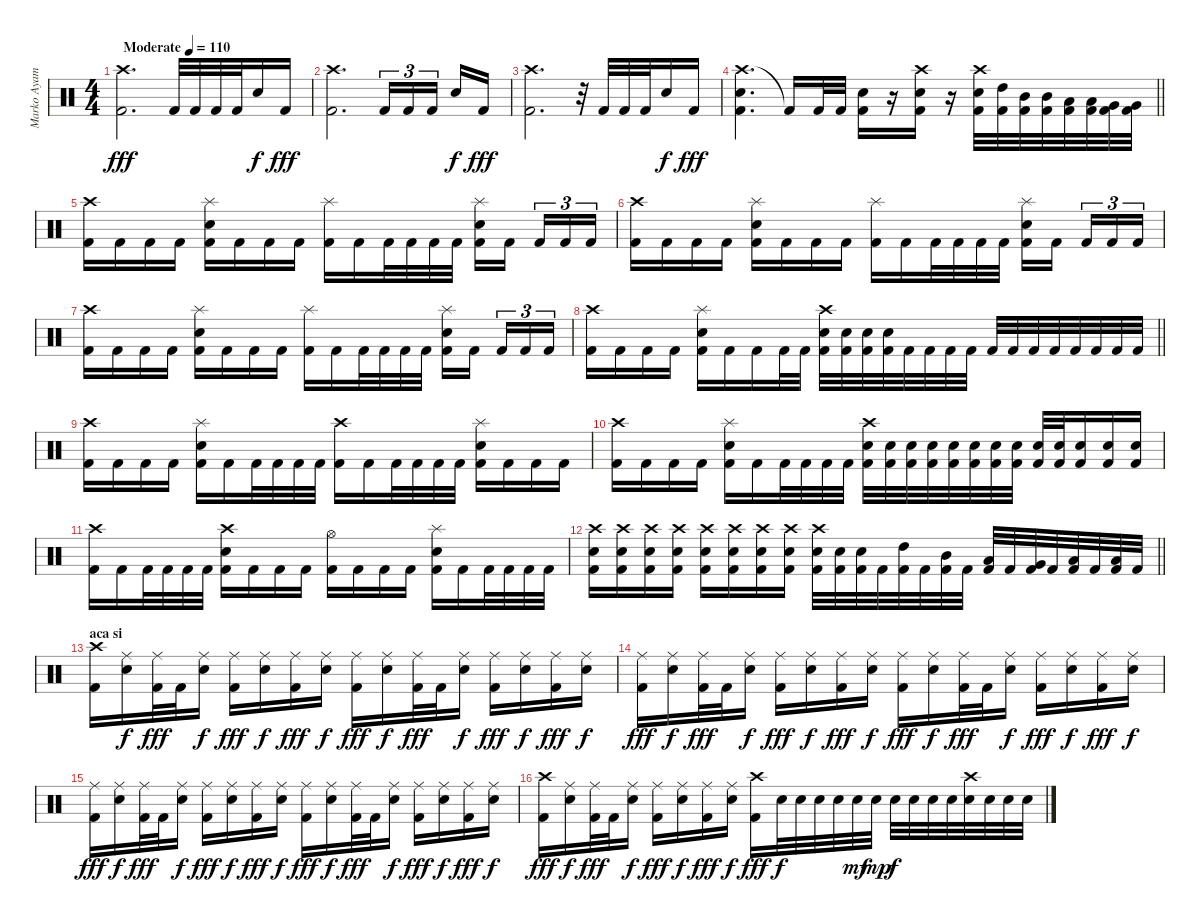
\track ("Marko Ayamani" "Marko Ayam") {instrument percussion}
\staff {score}
\articulation defaults
\ts (4 4)
\tempo (110 "Moderate")
\clef neutral
\ks c
("Crash high (hit)" "Kick (hit) 2").2{d dy fff} "Kick (hit) 2".32 "Kick (hit) 2".32 "Kick (hit) 2".32 "Kick (hit) 2".32 "Snare (hit) 2".16{dy f} "Kick (hit) 2".16{dy fff} |
("Crash high (hit)" "Kick (hit) 2").2{d} "Kick (hit) 2".16{tu (3 2)} "Kick (hit) 2".16{tu (3 2)} "Kick (hit) 2".16{tu (3 2) beam splitsecondary} "Snare (hit) 2".16{dy f} "Kick (hit) 2".16{dy fff} |
("Crash high (hit)" "Kick (hit) 2").2{d} r.32 "Kick (hit) 2".32 "Kick (hit) 2".32 "Kick (hit) 2".32 "Snare (hit) 2".16{dy f} "Kick (hit) 2".16{dy fff} |
\barLineRight lightlight
("Crash high (hit)" "Snare (hit) 2" "Kick (hit) 2").4{d} "Kick (hit) 2"{t}.16 "Kick (hit) 2".32 "Kick (hit) 2".32 ("Snare (hit) 2" "Kick (hit) 2").16 r.16 ("Crash high (hit)" "Snare (hit) 2" "Kick (hit) 2").16 r.16 ("Crash high (hit)" "Snare (hit) 2" "Kick (hit) 2").32 ("High Tom (hit)" "Kick (hit) 2").32 ("Mid Tom (hit)" "Kick (hit) 2").32 ("Mid Tom (hit)" "Kick (hit) 2").32 ("Low Tom (hit)" "Kick (hit) 2").32 ("Low Tom (hit)" "Kick (hit) 2").32 ("Very Low Tom (hit)" "Kick (hit) 2").32 ("Very Low Tom (hit)" "Kick (hit) 2").32 |
("Crash high (hit)" "Kick (hit) 2").16 "Kick (hit) 2".16 "Kick (hit) 2".16 "Kick (hit) 2".16 ("Splash (hit)" "Snare (hit) 2" "Kick (hit) 2").16 "Kick (hit) 2".16 "Kick (hit) 2".16 "Kick (hit) 2".16 ("Splash (hit)" "Kick (hit) 2").16 "Kick (hit) 2".16 "Kick (hit) 2".32 "Kick (hit) 2".32 "Kick (hit) 2".32 "Kick (hit) 2".32 ("Splash (hit)" "Snare (hit) 2" "Kick (hit) 2").16 "Kick (hit) 2".16{beam splitsecondary} "Kick (hit) 2".16{tu (3 2)} "Kick (hit) 2".16{tu (3 2)} "Kick (hit) 2".16{tu (3 2)} |
("Crash high (hit)" "Kick (hit) 2").16 "Kick (hit) 2".16 "Kick (hit) 2".16 "Kick (hit) 2".16 ("Splash (hit)" "Snare (hit) 2" "Kick (hit) 2").16 "Kick (hit) 2".16 "Kick (hit) 2".16 "Kick (hit) 2".16 ("Splash (hit)" "Kick (hit) 2").16 "Kick (hit) 2".16 "Kick (hit) 2".32 "Kick (hit) 2".32 "Kick (hit) 2".32 "Kick (hit) 2".32 ("Splash (hit)" "Snare (hit) 2" "Kick (hit) 2").16 "Kick (hit) 2".16{beam splitsecondary} "Kick (hit) 2".16{tu (3 2)} "Kick (hit) 2".16{tu (3 2)} "Kick (hit) 2".16{tu (3 2)} |
("Crash high (hit)" "Kick (hit) 2").16 "Kick (hit) 2".16 "Kick (hit) 2".16 "Kick (hit) 2".16 ("Splash (hit)" "Snare (hit) 2" "Kick (hit) 2").16 "Kick (hit) 2".16 "Kick (hit) 2".16 "Kick (hit) 2".16 ("Splash (hit)" "Kick (hit) 2").16 "Kick (hit) 2".16 "Kick (hit) 2".32 "Kick (hit) 2".32 "Kick (hit) 2".32 "Kick (hit) 2".32 ("Splash (hit)" "Snare (hit) 2" "Kick (hit) 2").16 "Kick (hit) 2".16{beam splitsecondary} "Kick (hit) 2".16{tu (3 2)} "Kick (hit) 2".16{tu (3 2)} "Kick (hit) 2".16{tu (3 2)} |
\barLineRight lightlight
("Crash high (hit)" "Kick (hit) 2").16 "Kick (hit) 2".16 "Kick (hit) 2".16 "Kick (hit) 2".16 ("Splash (hit)" "Snare (hit) 2" "Kick (hit) 2").16 "Kick (hit) 2".16 "Kick (hit) 2".16 "Kick (hit) 2".32 "Kick (hit) 2".32 ("Crash high (hit)" "Snare (hit) 2" "Kick (hit) 2").32 ("Snare (hit) 2" "Kick (hit) 2").32 ("Snare (hit) 2" "Kick (hit) 2").32 ("Snare (hit) 2" "Kick (hit) 2").32 "Kick (hit) 2".32 "Kick (hit) 2".32 "Kick (hit) 2".32 "Kick (hit) 2".32 "Kick (hit) 2".32 "Kick (hit) 2".32 "Kick (hit) 2".32 "Kick (hit) 2".32 "Kick (hit) 2".32 "Kick (hit) 2".32 "Kick (hit) 2".32 "Kick (hit) 2".32 |
("Crash high (hit)" "Kick (hit) 2").16 "Kick (hit) 2".16 "Kick (hit) 2".16 "Kick (hit) 2".16 ("Splash (hit)" "Snare (hit) 2" "Kick (hit) 2").16 "Kick (hit) 2".16 "Kick (hit) 2".32 "Kick (hit) 2".32 "Kick (hit) 2".32 "Kick (hit) 2".32 ("Crash high (hit)" "Kick (hit) 2").16 "Kick (hit) 2".16 "Kick (hit) 2".32 "Kick (hit) 2".32 "Kick (hit) 2".32 "Kick (hit) 2".32 ("Splash (hit)" "Snare (hit) 2" "Kick (hit) 2").16 "Kick (hit) 2".16 "Kick (hit) 2".16 "Kick (hit) 2".16 |
("Crash high (hit)" "Kick (hit) 2").16 "Kick (hit) 2".16 "Kick (hit) 2".16 "Kick (hit) 2".16 ("Splash (hit)" "Snare (hit) 2" "Kick (hit) 2").16 "Kick (hit) 2".16 "Kick (hit) 2".32 "Kick (hit) 2".32 "Kick (hit) 2".32 "Kick (hit) 2".32 ("Crash high (hit)" "Snare (hit) 2" "Kick (hit) 2").32 ("Snare (hit) 2" "Kick (hit) 2").32 ("Snare (hit) 2" "Kick (hit) 2").32 ("Snare (hit) 2" "Kick (hit) 2").32 ("Snare (hit) 2" "Kick (hit) 2").32 ("Snare (hit) 2" "Kick (hit) 2").32 ("Snare (hit) 2" "Kick (hit) 2").32 ("Snare (hit) 2" "Kick (hit) 2").32 ("Snare (hit) 2" "Kick (hit) 2").32 ("Snare (hit) 2" "Kick (hit) 2").32 ("Snare (hit) 2" "Kick (hit) 2").16 ("Snare (hit) 2" "Kick (hit) 2").16 ("Snare (hit) 2" "Kick (hit) 2").16 |
("Crash high (hit)" "Kick (hit) 2").16 "Kick (hit) 2".16 "Kick (hit) 2".32 "Kick (hit) 2".32 "Kick (hit) 2".32 "Kick (hit) 2".32 ("Crash high (hit)" "Snare (hit) 2" "Kick (hit) 2").16 "Kick (hit) 2".16 "Kick (hit) 2".16 "Kick (hit) 2".16 ("Hi-Hat (open)" "Kick (hit) 2").16 "Kick (hit) 2".16 "Kick (hit) 2".16 "Kick (hit) 2".16 ("Splash (hit)" "Snare (hit) 2" "Kick (hit) 2").16 "Kick (hit) 2".16 "Kick (hit) 2".32 "Kick (hit) 2".32 "Kick (hit) 2".32 "Kick (hit) 2".32 |
\barLineRight lightlight
("Crash high (hit)" "Snare (hit) 2" "Kick (hit) 2").16 ("Crash high (hit)" "Snare (hit) 2" "Kick (hit) 2").16 ("Crash high (hit)" "Snare (hit) 2" "Kick (hit) 2").16 ("Crash high (hit)" "Snare (hit) 2" "Kick (hit) 2").16 ("Crash high (hit)" "Snare (hit) 2" "Kick (hit) 2").16 ("Crash high (hit)" "Snare (hit) 2" "Kick (hit) 2").16 ("Crash high (hit)" "Snare (hit) 2" "Kick (hit) 2").16 ("Crash high (hit)" "Snare (hit) 2" "Kick (hit) 2").16 ("Crash high (hit)" "Snare (hit) 2" "Kick (hit) 2").32 ("Snare (hit) 2" "Kick (hit) 2").32 ("Snare (hit) 2" "Kick (hit) 2").32 "Kick (hit) 2".32 ("High Tom (hit)" "Kick (hit) 2").32 "Kick (hit) 2".32 ("Mid Tom (hit)" "Kick (hit) 2").32 "Kick (hit) 2".32 ("Low Tom (hit)" "Kick (hit) 2").32 "Kick (hit) 2".32 ("Very Low Tom (hit)" "Kick (hit) 2").32 "Kick (hit) 2".32 ("Low Floor Tom (hit)" "Kick (hit) 2").32 "Kick (hit) 2".32 ("Low Floor Tom (hit)" "Kick (hit) 2").32 "Kick (hit) 2".32 |
\section ("" "aca si")
("Crash high (hit)" "Kick (hit) 2").16 ("Ride (middle)" "Snare (hit) 2").16{dy f} ("Ride (middle)" "Kick (hit) 2").32{dy fff} "Kick (hit) 2".32 ("Ride (middle)" "Snare (hit) 2").16{dy f} ("Ride (middle)" "Kick (hit) 2").16{dy fff} ("Ride (middle)" "Snare (hit) 2").16{dy f} ("Ride (middle)" "Kick (hit) 2").16{dy fff} ("Ride (middle)" "Snare (hit) 2").16{dy f} ("Ride (middle)" "Kick (hit) 2").16{dy fff} ("Ride (middle)" "Snare (hit) 2").16{dy f} ("Ride (middle)" "Kick (hit) 2").32{dy fff} "Kick (hit) 2".32 ("Ride (middle)" "Snare (hit) 2").16{dy f} ("Ride (middle)" "Kick (hit) 2").16{dy fff} ("Ride (middle)" "Snare (hit) 2").16{dy f} ("Ride (middle)" "Kick (hit) 2").16{dy fff} ("Ride (middle)" "Snare (hit) 2").16{dy f} |
("Ride (middle)" "Kick (hit) 2").16{dy fff} ("Ride (middle)" "Snare (hit) 2").16{dy f} ("Ride (middle)" "Kick (hit) 2").32{dy fff} "Kick (hit) 2".32 ("Ride (middle)" "Snare (hit) 2").16{dy f} ("Ride (middle)" "Kick (hit) 2").16{dy fff} ("Ride (middle)" "Snare (hit) 2").16{dy f} ("Ride (middle)" "Kick (hit) 2").16{dy fff} ("Ride (middle)" "Snare (hit) 2").16{dy f} ("Ride (middle)" "Kick (hit) 2").16{dy fff} ("Ride (middle)" "Snare (hit) 2").16{dy f} ("Ride (middle)" "Kick (hit) 2").32{dy fff} "Kick (hit) 2".32 ("Ride (middle)" "Snare (hit) 2").16{dy f} ("Ride (middle)" "Kick (hit) 2").16{dy fff} ("Ride (middle)" "Snare (hit) 2").16{dy f} ("Ride (middle)" "Kick (hit) 2").16{dy fff} ("Ride (middle)" "Snare (hit) 2").16{dy f} |
("Ride (middle)" "Kick (hit) 2").16{dy fff} ("Ride (middle)" "Snare (hit) 2").16{dy f} ("Ride (middle)" "Kick (hit) 2").32{dy fff} "Kick (hit) 2".32 ("Ride (middle)" "Snare (hit) 2").16{dy f} ("Ride (middle)" "Kick (hit) 2").16{dy fff} ("Ride (middle)" "Snare (hit) 2").16{dy f} ("Ride (middle)" "Kick (hit) 2").16{dy fff} ("Ride (middle)" "Snare (hit) 2").16{dy f} ("Ride (middle)" "Kick (hit) 2").16{dy fff} ("Ride (middle)" "Snare (hit) 2").16{dy f} ("Ride (middle)" "Kick (hit) 2").32{dy fff} "Kick (hit) 2".32 ("Ride (middle)" "Snare (hit) 2").16{dy f} ("Ride (middle)" "Kick (hit) 2").16{dy fff} ("Ride (middle)" "Snare (hit) 2").16{dy f} ("Ride (middle)" "Kick (hit) 2").16{dy fff} ("Ride (middle)" "Snare (hit) 2").16{dy f} |
("Crash high (hit)" "Kick (hit) 2").16{dy fff} ("Ride (middle)" "Snare (hit) 2").16{dy f} ("Ride (middle)" "Kick (hit) 2").32{dy fff} "Kick (hit) 2".32 ("Ride (middle)" "Snare (hit) 2").16{dy f} ("Ride (middle)" "Kick (hit) 2").16{dy fff} ("Ride (middle)" "Snare (hit) 2").16{dy f} ("Ride (middle)" "Kick (hit) 2").16{dy fff} ("Ride (middle)" "Snare (hit) 2").16{dy f} ("Crash high (hit)" "Kick (hit) 2").16{dy fff} "Snare (hit) 2".32{dy f} "Snare (hit) 2".32 "Snare (hit) 2".32 "Snare (hit) 2".32 "Snare (hit) 2".32{dy mf} "Snare (hit) 2".32{dy mp} "Snare (hit) 2".32{dy f} "Snare (hit) 2".32 "Snare (hit) 2".32 "Snare (hit) 2".32 ("Crash high (hit)" "Snare (hit) 2").32 "Snare (hit) 2".32 "Snare (hit) 2".32 "Snare (hit) 2".32
